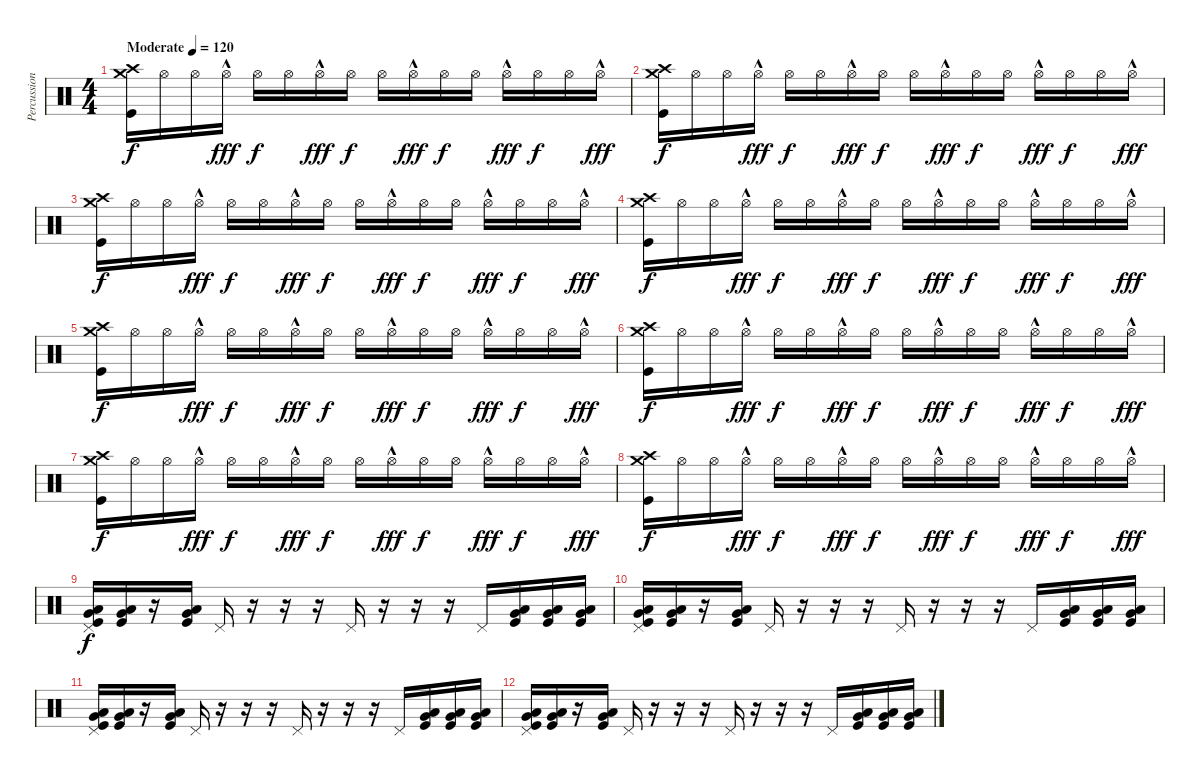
\track ("Percussion" "Percussion") {instrument percussion}
\staff {score}
\articulation defaults
\ts (4 4)
\tempo (120 "Moderate")
\clef neutral
\ks c
("Crash medium (hit)" "Crash high (hit)" "Kick (hit)").16{dy f} "Hi-Hat (open)".16 "Hi-Hat (open)".16 "Hi-Hat (open)"{hac}.16{dy fff} "Hi-Hat (open)".16{dy f} "Hi-Hat (open)".16 "Hi-Hat (open)"{hac}.16{dy fff} "Hi-Hat (open)".16{dy f} "Hi-Hat (open)".16 "Hi-Hat (open)"{hac}.16{dy fff} "Hi-Hat (open)".16{dy f} "Hi-Hat (open)".16 "Hi-Hat (open)"{hac}.16{dy fff} "Hi-Hat (open)".16{dy f} "Hi-Hat (open)".16 "Hi-Hat (open)"{hac}.16{dy fff} |
("Crash medium (hit)" "Crash high (hit)" "Kick (hit)").16{dy f} "Hi-Hat (open)".16 "Hi-Hat (open)".16 "Hi-Hat (open)"{hac}.16{dy fff} "Hi-Hat (open)".16{dy f} "Hi-Hat (open)".16 "Hi-Hat (open)"{hac}.16{dy fff} "Hi-Hat (open)".16{dy f} "Hi-Hat (open)".16 "Hi-Hat (open)"{hac}.16{dy fff} "Hi-Hat (open)".16{dy f} "Hi-Hat (open)".16 "Hi-Hat (open)"{hac}.16{dy fff} "Hi-Hat (open)".16{dy f} "Hi-Hat (open)".16 "Hi-Hat (open)"{hac}.16{dy fff} |
("Crash medium (hit)" "Crash high (hit)" "Kick (hit)").16{dy f} "Hi-Hat (open)".16 "Hi-Hat (open)".16 "Hi-Hat (open)"{hac}.16{dy fff} "Hi-Hat (open)".16{dy f} "Hi-Hat (open)".16 "Hi-Hat (open)"{hac}.16{dy fff} "Hi-Hat (open)".16{dy f} "Hi-Hat (open)".16 "Hi-Hat (open)"{hac}.16{dy fff} "Hi-Hat (open)".16{dy f} "Hi-Hat (open)".16 "Hi-Hat (open)"{hac}.16{dy fff} "Hi-Hat (open)".16{dy f} "Hi-Hat (open)".16 "Hi-Hat (open)"{hac}.16{dy fff} |
("Crash medium (hit)" "Crash high (hit)" "Kick (hit)").16{dy f} "Hi-Hat (open)".16 "Hi-Hat (open)".16 "Hi-Hat (open)"{hac}.16{dy fff} "Hi-Hat (open)".16{dy f} "Hi-Hat (open)".16 "Hi-Hat (open)"{hac}.16{dy fff} "Hi-Hat (open)".16{dy f} "Hi-Hat (open)".16 "Hi-Hat (open)"{hac}.16{dy fff} "Hi-Hat (open)".16{dy f} "Hi-Hat (open)".16 "Hi-Hat (open)"{hac}.16{dy fff} "Hi-Hat (open)".16{dy f} "Hi-Hat (open)".16 "Hi-Hat (open)"{hac}.16{dy fff} |
("Crash medium (hit)" "Crash high (hit)" "Kick (hit)").16{dy f} "Hi-Hat (open)".16 "Hi-Hat (open)".16 "Hi-Hat (open)"{hac}.16{dy fff} "Hi-Hat (open)".16{dy f} "Hi-Hat (open)".16 "Hi-Hat (open)"{hac}.16{dy fff} "Hi-Hat (open)".16{dy f} "Hi-Hat (open)".16 "Hi-Hat (open)"{hac}.16{dy fff} "Hi-Hat (open)".16{dy f} "Hi-Hat (open)".16 "Hi-Hat (open)"{hac}.16{dy fff} "Hi-Hat (open)".16{dy f} "Hi-Hat (open)".16 "Hi-Hat (open)"{hac}.16{dy fff} |
("Crash medium (hit)" "Crash high (hit)" "Kick (hit)").16{dy f} "Hi-Hat (open)".16 "Hi-Hat (open)".16 "Hi-Hat (open)"{hac}.16{dy fff} "Hi-Hat (open)".16{dy f} "Hi-Hat (open)".16 "Hi-Hat (open)"{hac}.16{dy fff} "Hi-Hat (open)".16{dy f} "Hi-Hat (open)".16 "Hi-Hat (open)"{hac}.16{dy fff} "Hi-Hat (open)".16{dy f} "Hi-Hat (open)".16 "Hi-Hat (open)"{hac}.16{dy fff} "Hi-Hat (open)".16{dy f} "Hi-Hat (open)".16 "Hi-Hat (open)"{hac}.16{dy fff} |
("Crash medium (hit)" "Crash high (hit)" "Kick (hit)").16{dy f} "Hi-Hat (open)".16 "Hi-Hat (open)".16 "Hi-Hat (open)"{hac}.16{dy fff} "Hi-Hat (open)".16{dy f} "Hi-Hat (open)".16 "Hi-Hat (open)"{hac}.16{dy fff} "Hi-Hat (open)".16{dy f} "Hi-Hat (open)".16 "Hi-Hat (open)"{hac}.16{dy fff} "Hi-Hat (open)".16{dy f} "Hi-Hat (open)".16 "Hi-Hat (open)"{hac}.16{dy fff} "Hi-Hat (open)".16{dy f} "Hi-Hat (open)".16 "Hi-Hat (open)"{hac}.16{dy fff} |
("Crash medium (hit)" "Crash high (hit)" "Kick (hit)").16{dy f} "Hi-Hat (open)".16 "Hi-Hat (open)".16 "Hi-Hat (open)"{hac}.16{dy fff} "Hi-Hat (open)".16{dy f} "Hi-Hat (open)".16 "Hi-Hat (open)"{hac}.16{dy fff} "Hi-Hat (open)".16{dy f} "Hi-Hat (open)".16 "Hi-Hat (open)"{hac}.16{dy fff} "Hi-Hat (open)".16{dy f} "Hi-Hat (open)".16 "Hi-Hat (open)"{hac}.16{dy fff} "Hi-Hat (open)".16{dy f} "Hi-Hat (open)".16 "Hi-Hat (open)"{hac}.16{dy fff} |
("Pedal Hi-Hat (hit)" "Very Low Tom (hit)" "Low Floor Tom (hit)" "Kick (hit)").16{dy f} ("Very Low Tom (hit)" "Low Floor Tom (hit)" "Kick (hit)").16 r.16 ("Very Low Tom (hit)" "Low Floor Tom (hit)" "Kick (hit)").16 "Pedal Hi-Hat (hit)".16 r.16 r.16 r.16 "Pedal Hi-Hat (hit)".16 r.16 r.16 r.16 "Pedal Hi-Hat (hit)".16 ("Very Low Tom (hit)" "Low Floor Tom (hit)" "Kick (hit)").16 ("Very Low Tom (hit)" "Low Floor Tom (hit)" "Kick (hit)").16 ("Very Low Tom (hit)" "Low Floor Tom (hit)" "Kick (hit)").16 |
("Pedal Hi-Hat (hit)" "Very Low Tom (hit)" "Low Floor Tom (hit)" "Kick (hit)").16 ("Very Low Tom (hit)" "Low Floor Tom (hit)" "Kick (hit)").16 r.16 ("Very Low Tom (hit)" "Low Floor Tom (hit)" "Kick (hit)").16 "Pedal Hi-Hat (hit)".16 r.16 r.16 r.16 "Pedal Hi-Hat (hit)".16 r.16 r.16 r.16 "Pedal Hi-Hat (hit)".16 ("Very Low Tom (hit)" "Low Floor Tom (hit)" "Kick (hit)").16 ("Very Low Tom (hit)" "Low Floor Tom (hit)" "Kick (hit)").16 ("Very Low Tom (hit)" "Low Floor Tom (hit)" "Kick (hit)").16 |
("Pedal Hi-Hat (hit)" "Very Low Tom (hit)" "Low Floor Tom (hit)" "Kick (hit)").16 ("Very Low Tom (hit)" "Low Floor Tom (hit)" "Kick (hit)").16 r.16 ("Very Low Tom (hit)" "Low Floor Tom (hit)" "Kick (hit)").16 "Pedal Hi-Hat (hit)".16 r.16 r.16 r.16 "Pedal Hi-Hat (hit)".16 r.16 r.16 r.16 "Pedal Hi-Hat (hit)".16 ("Very Low Tom (hit)" "Low Floor Tom (hit)" "Kick (hit)").16 ("Very Low Tom (hit)" "Low Floor Tom (hit)" "Kick (hit)").16 ("Very Low Tom (hit)" "Low Floor Tom (hit)" "Kick (hit)").16 |
("Pedal Hi-Hat (hit)" "Very Low Tom (hit)" "Low Floor Tom (hit)" "Kick (hit)").16 ("Very Low Tom (hit)" "Low Floor Tom (hit)" "Kick (hit)").16 r.16 ("Very Low Tom (hit)" "Low Floor Tom (hit)" "Kick (hit)").16 "Pedal Hi-Hat (hit)".16 r.16 r.16 r.16 "Pedal Hi-Hat (hit)".16 r.16 r.16 r.16 "Pedal Hi-Hat (hit)".16 ("Very Low Tom (hit)" "Low Floor Tom (hit)" "Kick (hit)").16 ("Very Low Tom (hit)" "Low Floor Tom (hit)" "Kick (hit)").16 ("Very Low Tom (hit)" "Low Floor Tom (hit)" "Kick (hit)").16
